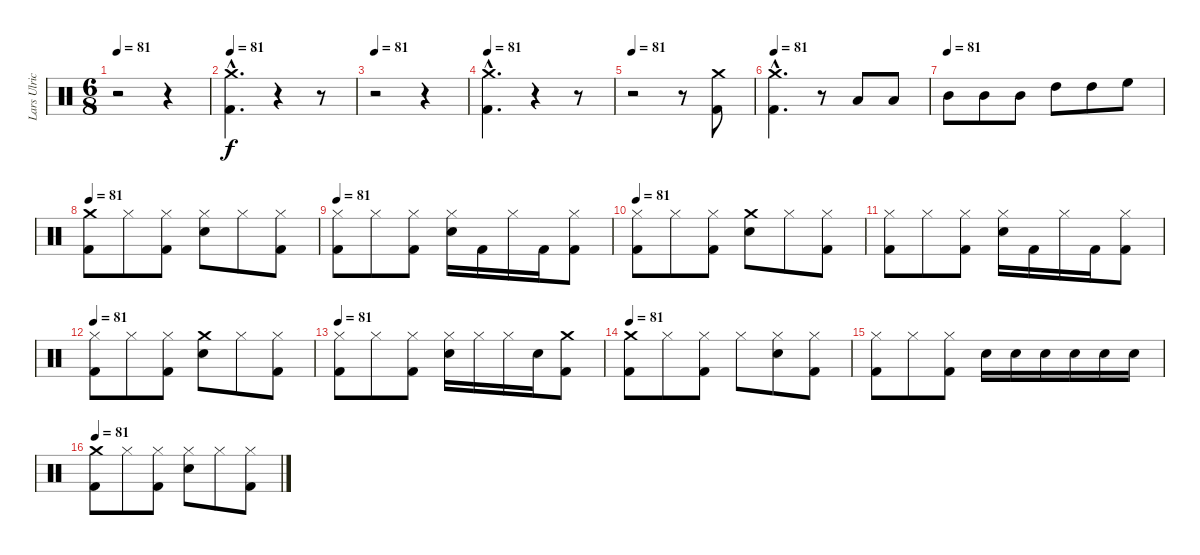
\track ("Lars Ulrich" "Lars Ulric") {instrument percussion}
\staff {score}
\articulation defaults
\ts (6 8)
\tempo 81
\clef neutral
\ks c
r.2{dy f} r.4 |
\tempo 81
("Kick (hit) 2"{hac} "Crash medium (hit)"{hac}).4{d} r.4 r.8 |
\tempo 81
r.2 r.4 |
\tempo 81
("Crash medium (hit)"{hac} "Kick (hit) 2"{hac}).4{d} r.4 r.8 |
\tempo 81
r.2 r.8 ("Kick (hit) 2" "Crash medium (hit)").8 |
\tempo 81
("Kick (hit) 2"{hac} "Crash medium (hit)"{hac}).4{d} r.8 "Low Tom (hit)".8 "Low Tom (hit)".8 |
\tempo (81)
"Mid Tom (hit)".8 "Mid Tom (hit)".8 "Mid Tom (hit)".8 "High Tom (hit)".8 "High Tom (hit)".8 "High Floor Tom (hit)".8 |
\tempo 81
("Kick (hit) 2" "Crash medium (hit)").8 "Hi-Hat (closed)".8 ("Kick (hit) 2" "Hi-Hat (closed)").8 ("Hi-Hat (closed)" "Snare (hit) 2").8 "Hi-Hat (closed)".8 ("Kick (hit) 2" "Hi-Hat (closed)").8 |
\tempo 81
("Hi-Hat (closed)" "Kick (hit) 2").8 "Hi-Hat (closed)".8 ("Kick (hit) 2" "Hi-Hat (closed)").8 ("Hi-Hat (closed)" "Snare (hit) 2").16 "Kick (hit) 2".16 "Hi-Hat (closed)".16 "Kick (hit) 2".16 ("Kick (hit) 2" "Hi-Hat (closed)").8 |
\tempo 81
("Hi-Hat (closed)" "Kick (hit) 2").8 "Hi-Hat (closed)".8 ("Hi-Hat (closed)" "Kick (hit) 2").8 ("Crash medium (hit)" "Snare (hit) 2").8 "Hi-Hat (closed)".8 ("Kick (hit) 2" "Hi-Hat (closed)").8 |
("Hi-Hat (closed)" "Kick (hit) 2").8 "Hi-Hat (closed)".8 ("Kick (hit) 2" "Hi-Hat (closed)").8 ("Hi-Hat (closed)" "Snare (hit) 2").16 "Kick (hit) 2".16 "Hi-Hat (closed)".16 "Kick (hit) 2".16 ("Kick (hit) 2" "Hi-Hat (closed)").8 |
\tempo 81
("Hi-Hat (closed)" "Kick (hit) 2").8 "Hi-Hat (closed)".8 ("Hi-Hat (closed)" "Kick (hit) 2").8 ("Crash medium (hit)" "Snare (hit) 2").8 "Hi-Hat (closed)".8 ("Kick (hit) 2" "Hi-Hat (closed)").8 |
\tempo 81
("Kick (hit) 2" "Hi-Hat (closed)").8 "Hi-Hat (closed)".8 ("Kick (hit) 2" "Hi-Hat (closed)").8 ("Hi-Hat (closed)" "Snare (hit) 2").16 "Hi-Hat (closed)".16 "Hi-Hat (closed)".16 "Snare (hit) 2".16 ("Crash medium (hit)" "Kick (hit) 2").8 |
\tempo 81
("Kick (hit) 2" "Crash medium (hit)").8 "Hi-Hat (closed)".8 ("Kick (hit) 2" "Hi-Hat (closed)").8 "Hi-Hat (closed)".8 ("Snare (hit) 2" "Hi-Hat (closed)").8 ("Kick (hit) 2" "Hi-Hat (closed)").8 |
("Hi-Hat (closed)" "Kick (hit) 2").8 "Hi-Hat (closed)".8 ("Hi-Hat (closed)" "Kick (hit) 2").8 "Snare (hit) 2".16 "Snare (hit) 2".16 "Snare (hit) 2".16 "Snare (hit) 2".16 "Snare (hit) 2".16 "Snare (hit) 2".16 |
\tempo 81
("Crash medium (hit)" "Kick (hit) 2").8 "Hi-Hat (closed)".8 ("Kick (hit) 2" "Hi-Hat (closed)").8 ("Snare (hit) 2" "Hi-Hat (closed)").8 "Hi-Hat (closed)".8 ("Kick (hit) 2" "Hi-Hat (closed)").8
